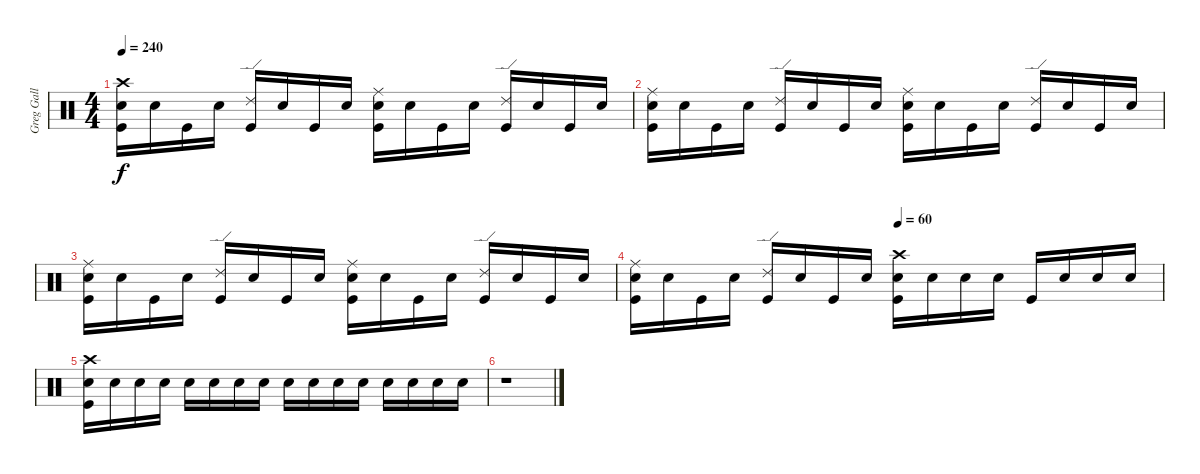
\track ("Greg Gall - Drums" "Greg Gall ") {instrument percussion}
\staff {score}
\articulation defaults
\ts (4 4)
\tempo 240
\clef neutral
\ks c
("Crash high (hit)" "Electric Snare (hit)" "Kick (hit)").16{dy f} "Snare (hit)".16 "Kick (hit)".16 "Snare (hit)".16 ("Ride (edge) 2" "Kick (hit)").16 "Snare (hit)".16 "Kick (hit)".16 "Snare (hit)".16 ("Ride (middle)" "Electric Snare (hit)" "Kick (hit)").16 "Snare (hit)".16 "Kick (hit)".16 "Snare (hit)".16 ("Ride (edge) 2" "Kick (hit)").16 "Snare (hit)".16 "Kick (hit)".16 "Snare (hit)".16 |
("Ride (middle)" "Electric Snare (hit)" "Kick (hit)").16 "Snare (hit)".16 "Kick (hit)".16 "Snare (hit)".16 ("Ride (edge) 2" "Kick (hit)").16 "Snare (hit)".16 "Kick (hit)".16 "Snare (hit)".16 ("Ride (middle)" "Electric Snare (hit)" "Kick (hit)").16 "Snare (hit)".16 "Kick (hit)".16 "Snare (hit)".16 ("Ride (edge) 2" "Kick (hit)").16 "Snare (hit)".16 "Kick (hit)".16 "Snare (hit)".16 |
("Ride (middle)" "Electric Snare (hit)" "Kick (hit)").16 "Snare (hit)".16 "Kick (hit)".16 "Snare (hit)".16 ("Ride (edge) 2" "Kick (hit)").16 "Snare (hit)".16 "Kick (hit)".16 "Snare (hit)".16 ("Ride (middle)" "Electric Snare (hit)" "Kick (hit)").16 "Snare (hit)".16 "Kick (hit)".16 "Snare (hit)".16 ("Ride (edge) 2" "Kick (hit)").16 "Snare (hit)".16 "Kick (hit)".16 "Snare (hit)".16 |
\tempo (60 0.5)
("Ride (middle)" "Electric Snare (hit)" "Kick (hit)").16 "Snare (hit)".16 "Kick (hit)".16 "Snare (hit)".16 ("Ride (edge) 2" "Kick (hit)").16 "Snare (hit)".16 "Kick (hit)".16 "Snare (hit)".16 ("Crash high (hit)" "Electric Snare (hit)" "Kick (hit)").16{volume 16 balance 8} "Snare (hit)".16 "Snare (hit)".16 "Snare (hit)".16 "Kick (hit)".16 "Snare (hit)".16 "Snare (hit)".16 "Snare (hit)".16 |
("Crash high (hit)" "Electric Snare (hit)" "Kick (hit)").16 "Snare (hit)".16 "Snare (hit)".16 "Snare (hit)".16 "Snare (hit)".16 "Snare (hit)".16 "Snare (hit)".16 "Snare (hit)".16 "Snare (hit)".16 "Snare (hit)".16 "Snare (hit)".16 "Snare (hit)".16 "Snare (hit)".16 "Snare (hit)".16 "Snare (hit)".16 "Snare (hit)".16 |
r.1
